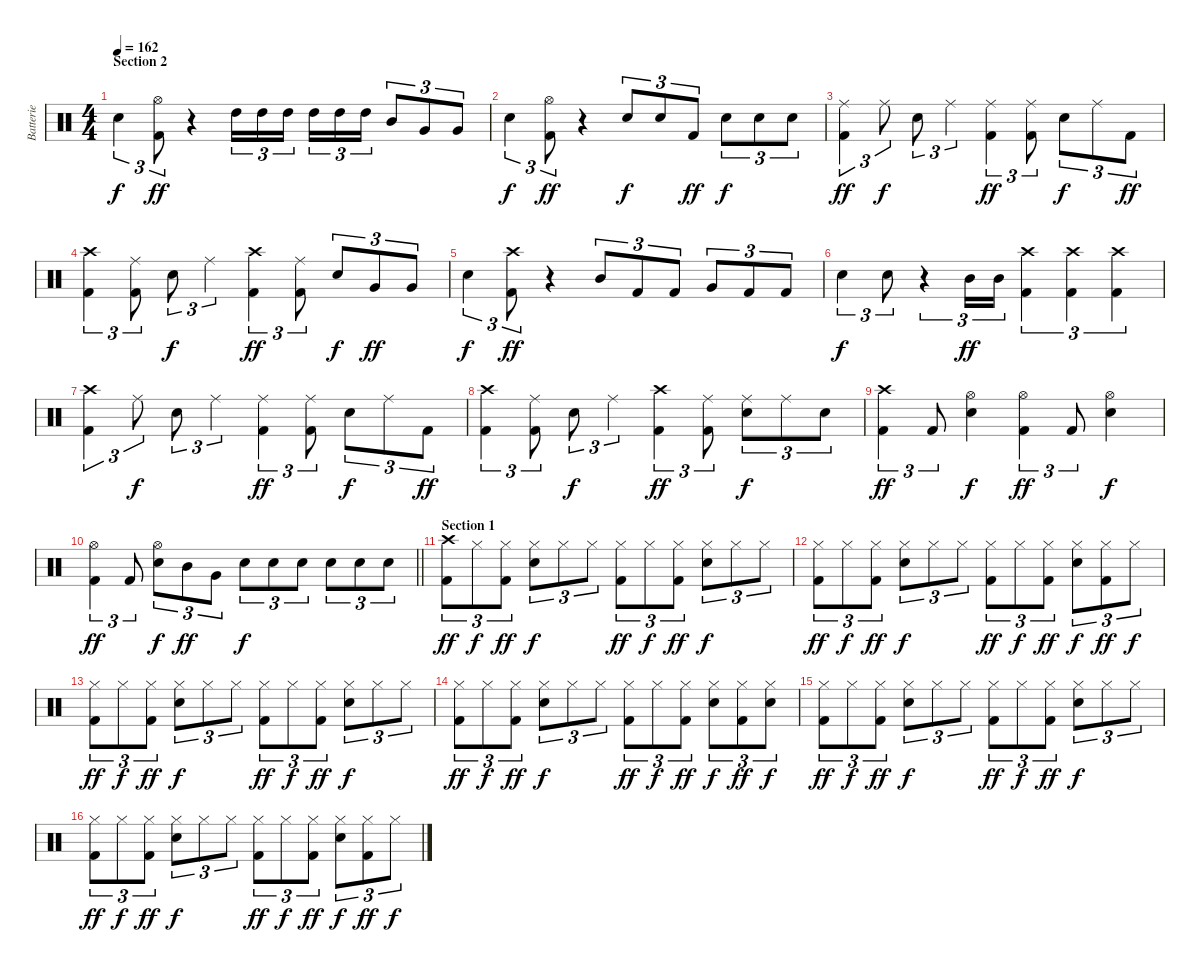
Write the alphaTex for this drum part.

\track ("Batterie" "Batterie") {instrument percussion}
\staff {score}
\articulation defaults
\ts (4 4)
\section ("" "Section 2")
\tempo 162
\clef neutral
\ks c "Snare (hit) 2".4{tu (3 2) dy f}
("Hi-Hat (open)" "Kick (hit) 2").8{tu (3 2) dy ff} r.4 "High Tom (hit)".16{tu (3 2)} "High Tom (hit)".16{tu (3 2)} "High Tom (hit)".16{tu (3 2) beam splitsecondary} "High Tom (hit)".16{tu (3 2)} "High Tom (hit)".16{tu (3 2)} "High Tom (hit)".16{tu (3 2)} "Mid Tom (hit)".8{tu (3 2)} "Very Low Tom (hit)".8{tu (3 2)} "Very Low Tom (hit)".8{tu (3 2)} |
"Snare (hit) 2".4{tu (3 2) dy f} ("Hi-Hat (open)" "Kick (hit) 2").8{tu (3 2) dy ff} r.4 "Snare (hit) 2".8{tu (3 2) dy f} "Snare (hit) 2".8{tu (3 2)} "Kick (hit) 2".8{tu (3 2) dy ff} "Snare (hit) 2".8{tu (3 2) dy f} "Snare (hit) 2".8{tu (3 2)} "Snare (hit) 2".8{tu (3 2)} |
("Ride (middle)" "Kick (hit) 2").4{tu (3 2) dy ff} "Ride (middle)".8{tu (3 2) dy f} "Snare (hit) 2".8{tu (3 2)} "Ride (middle)".4{tu (3 2)} ("Ride (middle)" "Kick (hit) 2").4{tu (3 2) dy ff} ("Ride (middle)" "Kick (hit) 2").8{tu (3 2)} "Snare (hit) 2".8{tu (3 2) dy f} "Ride (middle)".8{tu (3 2)} "Kick (hit) 2".8{tu (3 2) dy ff} |
("Crash high (hit)" "Kick (hit) 2").4{tu (3 2)} ("Ride (middle)" "Kick (hit) 2").8{tu (3 2)} "Snare (hit) 2".8{tu (3 2) dy f} "Ride (middle)".4{tu (3 2)} ("Crash high (hit)" "Kick (hit) 2").4{tu (3 2) dy ff} ("Ride (middle)" "Kick (hit) 2").8{tu (3 2)} "Snare (hit) 2".8{tu (3 2) dy f} "Very Low Tom (hit)".8{tu (3 2) dy ff} "Very Low Tom (hit)".8{tu (3 2)} |
"Snare (hit) 2".4{tu (3 2) dy f} ("Crash high (hit)" "Kick (hit) 2").8{tu (3 2) dy ff} r.4 "Mid Tom (hit)".8{tu (3 2)} "Kick (hit) 2".8{tu (3 2)} "Kick (hit) 2".8{tu (3 2)} "Very Low Tom (hit)".8{tu (3 2)} "Kick (hit) 2".8{tu (3 2)} "Kick (hit) 2".8{tu (3 2)} |
"Snare (hit) 2".4{tu (3 2) dy f} "Snare (hit) 2".8{tu (3 2)} r.4{tu (3 2)} "Mid Tom (hit)".16{tu (3 2) dy ff} "Mid Tom (hit)".16{tu (3 2)} ("Crash high (hit)" "Kick (hit) 2").4{tu (3 2)} ("Crash high (hit)" "Kick (hit) 2").4{tu (3 2)} ("Crash high (hit)" "Kick (hit) 2").4{tu (3 2)} |
("Crash high (hit)" "Kick (hit) 2").4{tu (3 2)} "Ride (middle)".8{tu (3 2) dy f} "Snare (hit) 2".8{tu (3 2)} "Ride (middle)".4{tu (3 2)} ("Ride (middle)" "Kick (hit) 2").4{tu (3 2) dy ff} ("Ride (middle)" "Kick (hit) 2").8{tu (3 2)} "Snare (hit) 2".8{tu (3 2) dy f} "Ride (middle)".8{tu (3 2)} "Kick (hit) 2".8{tu (3 2) dy ff} |
("Crash high (hit)" "Kick (hit) 2").4{tu (3 2)} ("Ride (middle)" "Kick (hit) 2").8{tu (3 2)} "Snare (hit) 2".8{tu (3 2) dy f} "Ride (middle)".4{tu (3 2)} ("Crash high (hit)" "Kick (hit) 2").4{tu (3 2) dy ff} ("Ride (middle)" "Kick (hit) 2").8{tu (3 2)} ("Ride (middle)" "Snare (hit) 2").8{tu (3 2) dy f} "Ride (middle)".8{tu (3 2)} "Snare (hit) 2".8{tu (3 2)} |
("Crash high (hit)" "Kick (hit) 2").4{tu (3 2) dy ff} "Kick (hit) 2".8{tu (3 2)} ("Hi-Hat (open)" "Snare (hit) 2").4{dy f} ("Hi-Hat (open)" "Kick (hit) 2").4{tu (3 2) dy ff} "Kick (hit) 2".8{tu (3 2)} ("Hi-Hat (open)" "Snare (hit) 2").4{dy f} |
\barLineRight lightlight
("Hi-Hat (open)" "Kick (hit) 2").4{tu (3 2) dy ff} "Kick (hit) 2".8{tu (3 2)} ("Hi-Hat (open)" "Snare (hit) 2").8{tu (3 2) dy f} "Mid Tom (hit)".8{tu (3 2) dy ff} "Very Low Tom (hit)".8{tu (3 2)} "Snare (hit) 2".8{tu (3 2) dy f} "Snare (hit) 2".8{tu (3 2)} "Snare (hit) 2".8{tu (3 2)} "Snare (hit) 2".8{tu (3 2)} "Snare (hit) 2".8{tu (3 2)} "Snare (hit) 2".8{tu (3 2)} |
\section ("" "Section 1")
("Crash high (hit)" "Kick (hit) 2").8{tu (3 2) dy ff} "Hi-Hat (closed)".8{tu (3 2) dy f} ("Hi-Hat (closed)" "Kick (hit) 2").8{tu (3 2) dy ff} ("Hi-Hat (closed)" "Snare (hit) 2").8{tu (3 2) dy f} "Hi-Hat (closed)".8{tu (3 2)} "Hi-Hat (closed)".8{tu (3 2)} ("Hi-Hat (closed)" "Kick (hit) 2").8{tu (3 2) dy ff} "Hi-Hat (closed)".8{tu (3 2) dy f} ("Hi-Hat (closed)" "Kick (hit) 2").8{tu (3 2) dy ff} ("Hi-Hat (closed)" "Snare (hit) 2").8{tu (3 2) dy f} "Hi-Hat (closed)".8{tu (3 2)} "Hi-Hat (closed)".8{tu (3 2)} |
("Hi-Hat (closed)" "Kick (hit) 2").8{tu (3 2) dy ff} "Hi-Hat (closed)".8{tu (3 2) dy f} ("Hi-Hat (closed)" "Kick (hit) 2").8{tu (3 2) dy ff} ("Hi-Hat (closed)" "Snare (hit) 2").8{tu (3 2) dy f} "Hi-Hat (closed)".8{tu (3 2)} "Hi-Hat (closed)".8{tu (3 2)} ("Hi-Hat (closed)" "Kick (hit) 2").8{tu (3 2) dy ff} "Hi-Hat (closed)".8{tu (3 2) dy f} ("Hi-Hat (closed)" "Kick (hit) 2").8{tu (3 2) dy ff} ("Hi-Hat (closed)" "Snare (hit) 2").8{tu (3 2) dy f} ("Hi-Hat (closed)" "Kick (hit) 2").8{tu (3 2) dy ff} "Hi-Hat (closed)".8{tu (3 2) dy f} |
("Hi-Hat (closed)" "Kick (hit) 2").8{tu (3 2) dy ff} "Hi-Hat (closed)".8{tu (3 2) dy f} ("Hi-Hat (closed)" "Kick (hit) 2").8{tu (3 2) dy ff} ("Hi-Hat (closed)" "Snare (hit) 2").8{tu (3 2) dy f} "Hi-Hat (closed)".8{tu (3 2)} "Hi-Hat (closed)".8{tu (3 2)} ("Hi-Hat (closed)" "Kick (hit) 2").8{tu (3 2) dy ff} "Hi-Hat (closed)".8{tu (3 2) dy f} ("Hi-Hat (closed)" "Kick (hit) 2").8{tu (3 2) dy ff} ("Hi-Hat (closed)" "Snare (hit) 2").8{tu (3 2) dy f} "Hi-Hat (closed)".8{tu (3 2)} "Hi-Hat (closed)".8{tu (3 2)} |
("Hi-Hat (closed)" "Kick (hit) 2").8{tu (3 2) dy ff} "Hi-Hat (closed)".8{tu (3 2) dy f} ("Hi-Hat (closed)" "Kick (hit) 2").8{tu (3 2) dy ff} ("Hi-Hat (closed)" "Snare (hit) 2").8{tu (3 2) dy f} "Hi-Hat (closed)".8{tu (3 2)} "Hi-Hat (closed)".8{tu (3 2)} ("Hi-Hat (closed)" "Kick (hit) 2").8{tu (3 2) dy ff} "Hi-Hat (closed)".8{tu (3 2) dy f} ("Hi-Hat (closed)" "Kick (hit) 2").8{tu (3 2) dy ff} ("Hi-Hat (closed)" "Snare (hit) 2").8{tu (3 2) dy f} ("Hi-Hat (closed)" "Kick (hit) 2").8{tu (3 2) dy ff} ("Hi-Hat (closed)" "Snare (hit) 2").8{tu (3 2) dy f} |
("Hi-Hat (closed)" "Kick (hit) 2").8{tu (3 2) dy ff} "Hi-Hat (closed)".8{tu (3 2) dy f} ("Hi-Hat (closed)" "Kick (hit) 2").8{tu (3 2) dy ff} ("Hi-Hat (closed)" "Snare (hit) 2").8{tu (3 2) dy f} "Hi-Hat (closed)".8{tu (3 2)} "Hi-Hat (closed)".8{tu (3 2)} ("Hi-Hat (closed)" "Kick (hit) 2").8{tu (3 2) dy ff} "Hi-Hat (closed)".8{tu (3 2) dy f} ("Hi-Hat (closed)" "Kick (hit) 2").8{tu (3 2) dy ff} ("Hi-Hat (closed)" "Snare (hit) 2").8{tu (3 2) dy f} "Hi-Hat (closed)".8{tu (3 2)} "Hi-Hat (closed)".8{tu (3 2)} |
("Hi-Hat (closed)" "Kick (hit) 2").8{tu (3 2) dy ff} "Hi-Hat (closed)".8{tu (3 2) dy f} ("Hi-Hat (closed)" "Kick (hit) 2").8{tu (3 2) dy ff} ("Hi-Hat (closed)" "Snare (hit) 2").8{tu (3 2) dy f} "Hi-Hat (closed)".8{tu (3 2)} "Hi-Hat (closed)".8{tu (3 2)} ("Hi-Hat (closed)" "Kick (hit) 2").8{tu (3 2) dy ff} "Hi-Hat (closed)".8{tu (3 2) dy f} ("Hi-Hat (closed)" "Kick (hit) 2").8{tu (3 2) dy ff} ("Hi-Hat (closed)" "Snare (hit) 2").8{tu (3 2) dy f} ("Hi-Hat (closed)" "Kick (hit) 2").8{tu (3 2) dy ff} "Hi-Hat (closed)".8{tu (3 2) dy f}
